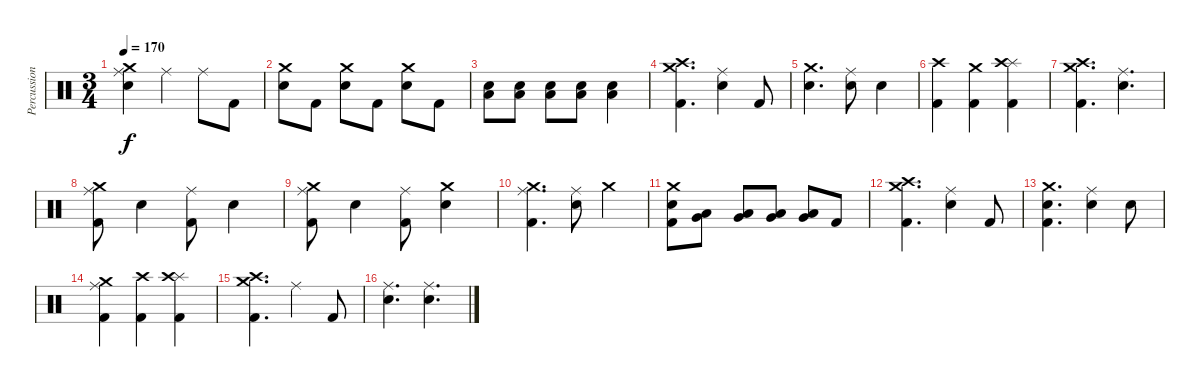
\track ("Percussion" "Percussion") {instrument percussion}
\staff {score}
\articulation defaults
\ts (3 4)
\tempo 170
\clef neutral
\ks c
("Ride (middle)" "Crash medium (hit)" "Electric Snare (hit)").4{dy f} "Ride (middle)".4 "Ride (middle)".8 "Kick (hit) 2".8 |
("Crash medium (hit)" "Electric Snare (hit)").8 "Kick (hit) 2".8 ("Crash medium (hit)" "Electric Snare (hit)").8 "Kick (hit) 2".8 ("Crash medium (hit)" "Electric Snare (hit)").8 "Kick (hit) 2".8 |
("Electric Snare (hit)" "Low Tom (hit)").8 ("Electric Snare (hit)" "Low Tom (hit)").8 ("Electric Snare (hit)" "Low Tom (hit)").8 ("Electric Snare (hit)" "Low Tom (hit)").8 ("Electric Snare (hit)" "Low Tom (hit)").4 |
("Crash medium (hit)" "Crash high (hit)" "Kick (hit) 2").4{d} ("Ride (middle)" "Electric Snare (hit)").4 "Kick (hit) 2".8 |
("Crash medium (hit)" "Electric Snare (hit)").4{d} ("Ride (middle)" "Electric Snare (hit)").8 "Electric Snare (hit)".4 |
("Crash high (hit)" "Kick (hit) 2").4 ("Crash medium (hit)" "Kick (hit) 2").4 ("Splash (hit)" "Crash high (hit)" "Kick (hit) 2").4 |
("Crash medium (hit)" "Crash high (hit)" "Kick (hit) 2").4{d} ("Ride (middle)" "Electric Snare (hit)").4{d} |
("Ride (middle)" "Crash medium (hit)" "Kick (hit) 2").8 "Electric Snare (hit)".4 ("Ride (middle)" "Kick (hit) 2").8 "Electric Snare (hit)".4 |
("Ride (middle)" "Crash medium (hit)" "Kick (hit) 2").8 "Electric Snare (hit)".4 ("Ride (middle)" "Kick (hit) 2").8 ("Crash medium (hit)" "Electric Snare (hit)").4 |
("Ride (middle)" "Crash medium (hit)" "Kick (hit) 2").4{d} ("Ride (middle)" "Electric Snare (hit)").8 "Crash medium (hit)".4 |
("Crash medium (hit)" "Electric Snare (hit)" "Kick (hit) 2").8 ("Very Low Tom (hit)" "Low Tom (hit)").8 ("Very Low Tom (hit)" "Low Tom (hit)").8 ("Very Low Tom (hit)" "Low Tom (hit)").8 ("Very Low Tom (hit)" "Low Tom (hit)").8 "Kick (hit) 2".8 |
("Crash medium (hit)" "Crash high (hit)" "Kick (hit) 2").4{d} ("Ride (middle)" "Electric Snare (hit)").4 "Kick (hit) 2".8 |
("Crash medium (hit)" "Electric Snare (hit)" "Kick (hit) 2").4{d} ("Ride (middle)" "Electric Snare (hit)").4 "Electric Snare (hit)".8 |
("Ride (middle)" "Crash medium (hit)" "Kick (hit) 2").4 ("Crash high (hit)" "Kick (hit) 2").4 ("Splash (hit)" "Crash high (hit)" "Kick (hit) 2").4 |
("Crash medium (hit)" "Crash high (hit)" "Kick (hit) 2").4{d} "Ride (middle)".4 "Kick (hit) 2".8 |
("Ride (middle)" "Electric Snare (hit)").4{d} ("Ride (middle)" "Electric Snare (hit)").4{d}
